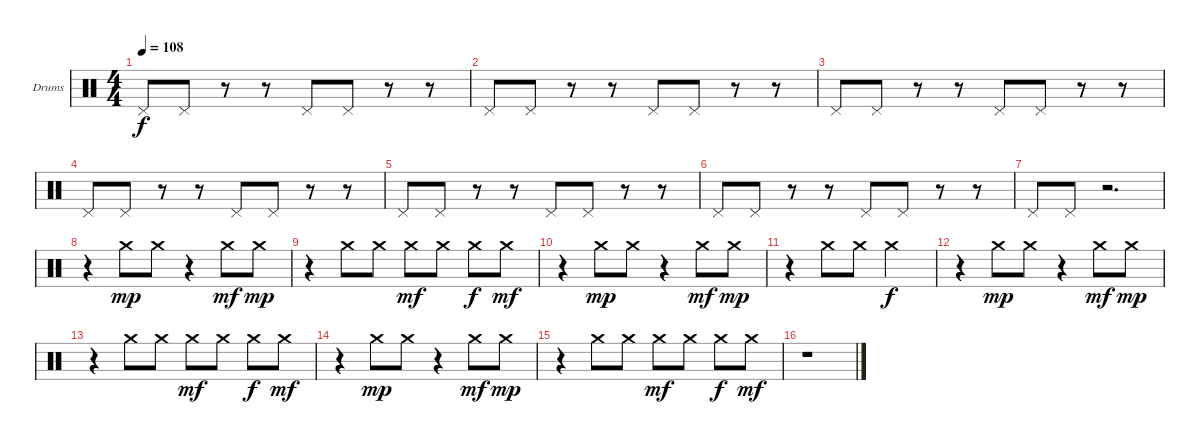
\bracketExtendMode groupsimilarinstruments
\firstSystemTrackNameOrientation horizontal
\otherSystemsTrackNameOrientation horizontal
\track ("Drumkit" "Drums") {instrument percussion}
\staff {score}
\articulation defaults
\ts (4 4)
\tempo 108
\clef neutral
\ks c "Pedal Hi-Hat (hit)".8{dy f} "Pedal Hi-Hat (hit)".8
r.8 r.8 "Pedal Hi-Hat (hit)".8 "Pedal Hi-Hat (hit)".8 r.8 r.8 |
"Pedal Hi-Hat (hit)".8 "Pedal Hi-Hat (hit)".8 r.8 r.8 "Pedal Hi-Hat (hit)".8 "Pedal Hi-Hat (hit)".8 r.8 r.8 |
"Pedal Hi-Hat (hit)".8 "Pedal Hi-Hat (hit)".8 r.8 r.8 "Pedal Hi-Hat (hit)".8 "Pedal Hi-Hat (hit)".8 r.8 r.8 |
"Pedal Hi-Hat (hit)".8 "Pedal Hi-Hat (hit)".8 r.8 r.8 "Pedal Hi-Hat (hit)".8 "Pedal Hi-Hat (hit)".8 r.8 r.8 |
"Pedal Hi-Hat (hit)".8 "Pedal Hi-Hat (hit)".8 r.8 r.8 "Pedal Hi-Hat (hit)".8 "Pedal Hi-Hat (hit)".8 r.8 r.8 |
"Pedal Hi-Hat (hit)".8 "Pedal Hi-Hat (hit)".8 r.8 r.8 "Pedal Hi-Hat (hit)".8 "Pedal Hi-Hat (hit)".8 r.8 r.8 |
"Pedal Hi-Hat (hit)".8 "Pedal Hi-Hat (hit)".8 r.2{d} |
r.4 "Crash medium (hit)".8{dy mp} "Crash medium (hit)".8 r.4 "Crash medium (hit)".8{dy mf} "Crash medium (hit)".8{dy mp} |
r.4 "Crash medium (hit)".8 "Crash medium (hit)".8 "Crash medium (hit)".8{dy mf} "Crash medium (hit)".8 "Crash medium (hit)".8{dy f} "Crash medium (hit)".8{dy mf} |
r.4 "Crash medium (hit)".8{dy mp} "Crash medium (hit)".8 r.4 "Crash medium (hit)".8{dy mf} "Crash medium (hit)".8{dy mp} |
r.4 "Crash medium (hit)".8 "Crash medium (hit)".8 "Crash medium (hit)".2{dy f} |
r.4 "Crash medium (hit)".8{dy mp} "Crash medium (hit)".8 r.4 "Crash medium (hit)".8{dy mf} "Crash medium (hit)".8{dy mp} |
r.4 "Crash medium (hit)".8 "Crash medium (hit)".8 "Crash medium (hit)".8{dy mf} "Crash medium (hit)".8 "Crash medium (hit)".8{dy f} "Crash medium (hit)".8{dy mf} |
r.4 "Crash medium (hit)".8{dy mp} "Crash medium (hit)".8 r.4 "Crash medium (hit)".8{dy mf} "Crash medium (hit)".8{dy mp} |
r.4 "Crash medium (hit)".8 "Crash medium (hit)".8 "Crash medium (hit)".8{dy mf} "Crash medium (hit)".8 "Crash medium (hit)".8{dy f} "Crash medium (hit)".8{dy mf} |
r.1
